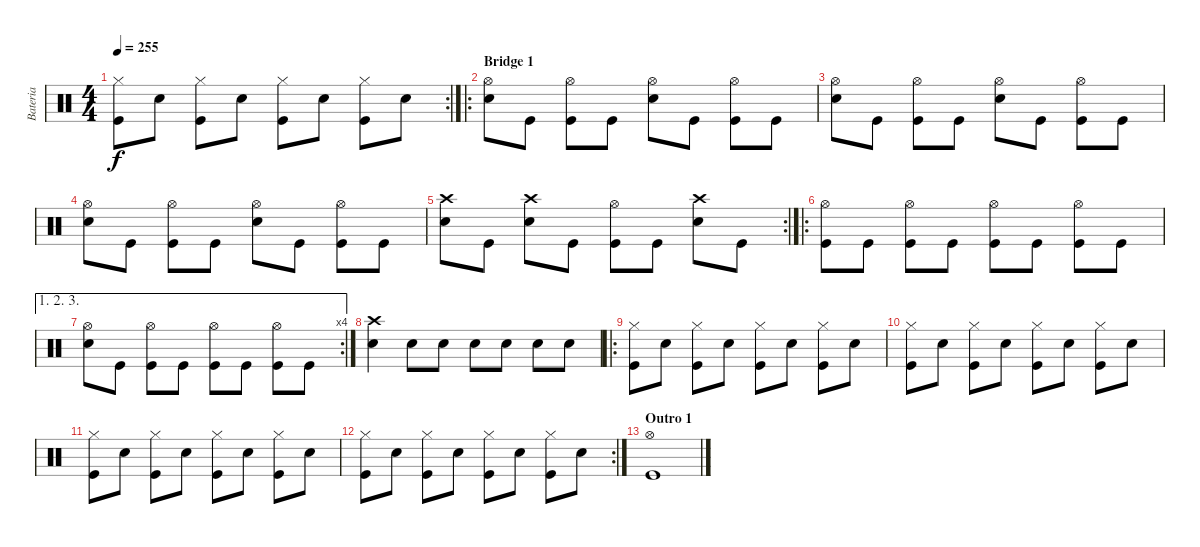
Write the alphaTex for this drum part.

\track ("Bateria" "Bateria") {instrument percussion}
\staff {score}
\articulation defaults
\rc 2
\ts (4 4)
\tempo 255
\clef neutral
\ks c
("Kick (hit)" "Hi-Hat (closed)").8{dy f} "Electric Snare (hit)".8 ("Kick (hit)" "Hi-Hat (closed)").8 "Electric Snare (hit)".8 ("Kick (hit)" "Hi-Hat (closed)").8 "Electric Snare (hit)".8 ("Kick (hit)" "Hi-Hat (closed)").8 "Electric Snare (hit)".8 |
\ro
\section ("" "Bridge 1")
("Electric Snare (hit)" "Hi-Hat (open)").8 "Kick (hit)".8 ("Kick (hit)" "Hi-Hat (open)").8 "Kick (hit)".8 ("Electric Snare (hit)" "Hi-Hat (open)").8 "Kick (hit)".8 ("Kick (hit)" "Hi-Hat (open)").8 "Kick (hit)".8 |
("Electric Snare (hit)" "Hi-Hat (open)").8 "Kick (hit)".8 ("Kick (hit)" "Hi-Hat (open)").8 "Kick (hit)".8 ("Electric Snare (hit)" "Hi-Hat (open)").8 "Kick (hit)".8 ("Kick (hit)" "Hi-Hat (open)").8 "Kick (hit)".8 |
("Electric Snare (hit)" "Hi-Hat (open)").8 "Kick (hit)".8 ("Kick (hit)" "Hi-Hat (open)").8 "Kick (hit)".8 ("Electric Snare (hit)" "Hi-Hat (open)").8 "Kick (hit)".8 ("Kick (hit)" "Hi-Hat (open)").8 "Kick (hit)".8 |
\rc 2
("Electric Snare (hit)" "Crash high (hit)").8 "Kick (hit)".8 ("Electric Snare (hit)" "Crash high (hit)").8 "Kick (hit)".8 ("Kick (hit)" "Hi-Hat (open)").8 "Kick (hit)".8 ("Electric Snare (hit)" "Crash high (hit)").8 "Kick (hit)".8 |
\ro
("Kick (hit)" "Hi-Hat (open)").8 "Kick (hit)".8 ("Kick (hit)" "Hi-Hat (open)").8 "Kick (hit)".8 ("Kick (hit)" "Hi-Hat (open)").8 "Kick (hit)".8 ("Kick (hit)" "Hi-Hat (open)").8 "Kick (hit)".8 |
\ae (1 2 3)
\rc 4
("Electric Snare (hit)" "Hi-Hat (open)").8 "Kick (hit)".8 ("Kick (hit)" "Hi-Hat (open)").8 "Kick (hit)".8 ("Kick (hit)" "Hi-Hat (open)").8 "Kick (hit)".8 ("Kick (hit)" "Hi-Hat (open)").8 "Kick (hit)".8 |
("Electric Snare (hit)" "Crash high (hit)").4 "Electric Snare (hit)".8 "Electric Snare (hit)".8 "Electric Snare (hit)".8 "Electric Snare (hit)".8 "Electric Snare (hit)".8 "Electric Snare (hit)".8 |
\ro
("Kick (hit)" "Hi-Hat (closed)").8 "Electric Snare (hit)".8 ("Kick (hit)" "Hi-Hat (closed)").8 "Electric Snare (hit)".8 ("Kick (hit)" "Hi-Hat (closed)").8 "Electric Snare (hit)".8 ("Kick (hit)" "Hi-Hat (closed)").8 "Electric Snare (hit)".8 |
("Kick (hit)" "Hi-Hat (closed)").8 "Electric Snare (hit)".8 ("Kick (hit)" "Hi-Hat (closed)").8 "Electric Snare (hit)".8 ("Kick (hit)" "Hi-Hat (closed)").8 "Electric Snare (hit)".8 ("Kick (hit)" "Hi-Hat (closed)").8 "Electric Snare (hit)".8 |
("Kick (hit)" "Hi-Hat (closed)").8 "Electric Snare (hit)".8 ("Kick (hit)" "Hi-Hat (closed)").8 "Electric Snare (hit)".8 ("Kick (hit)" "Hi-Hat (closed)").8 "Electric Snare (hit)".8 ("Kick (hit)" "Hi-Hat (closed)").8 "Electric Snare (hit)".8 |
\rc 2
("Kick (hit)" "Hi-Hat (closed)").8 "Electric Snare (hit)".8 ("Kick (hit)" "Hi-Hat (closed)").8 "Electric Snare (hit)".8 ("Kick (hit)" "Hi-Hat (closed)").8 "Electric Snare (hit)".8 ("Kick (hit)" "Hi-Hat (closed)").8 "Electric Snare (hit)".8 |
\section ("" "Outro 1")
("Kick (hit)" "Hi-Hat (open)").1
